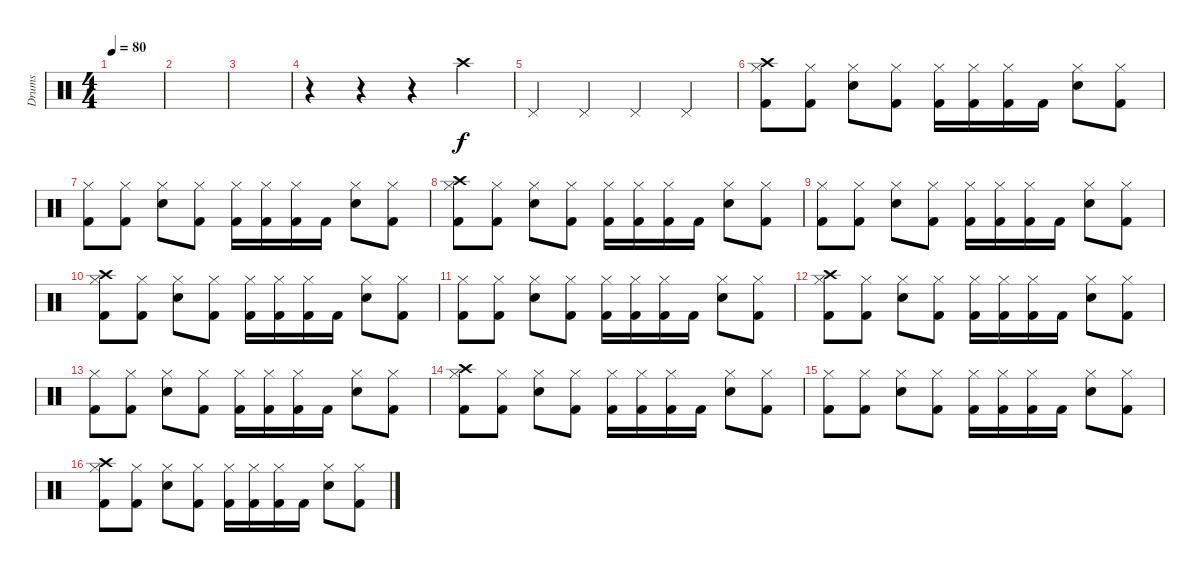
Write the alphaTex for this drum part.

\track ("Drums" "Drums") {instrument percussion}
\staff {score}
\articulation defaults
\ts (4 4)
\tempo 80
\clef neutral
\ks c
|
|
|
r.4 r.4 r.4 "Crash high (hit)".4 |
"Pedal Hi-Hat (hit)".4 "Pedal Hi-Hat (hit)".4 "Pedal Hi-Hat (hit)".4 "Pedal Hi-Hat (hit)".4 |
("Crash high (hit)" "Hi-Hat (closed)" "Kick (hit) 2").8 ("Hi-Hat (closed)" "Kick (hit) 2").8 ("Hi-Hat (closed)" "Snare (hit) 2").8 ("Hi-Hat (closed)" "Kick (hit) 2").8 ("Hi-Hat (closed)" "Kick (hit) 2").16 ("Hi-Hat (closed)" "Kick (hit) 2").16 ("Hi-Hat (closed)" "Kick (hit) 2").16 "Kick (hit) 2".16 ("Hi-Hat (closed)" "Snare (hit) 2").8 ("Hi-Hat (closed)" "Kick (hit) 2").8 |
("Hi-Hat (closed)" "Kick (hit) 2").8 ("Hi-Hat (closed)" "Kick (hit) 2").8 ("Hi-Hat (closed)" "Snare (hit) 2").8 ("Hi-Hat (closed)" "Kick (hit) 2").8 ("Hi-Hat (closed)" "Kick (hit) 2").16 ("Hi-Hat (closed)" "Kick (hit) 2").16 ("Hi-Hat (closed)" "Kick (hit) 2").16 "Kick (hit) 2".16 ("Hi-Hat (closed)" "Snare (hit) 2").8 ("Hi-Hat (closed)" "Kick (hit) 2").8 |
("Crash high (hit)" "Hi-Hat (closed)" "Kick (hit) 2").8 ("Hi-Hat (closed)" "Kick (hit) 2").8 ("Hi-Hat (closed)" "Snare (hit) 2").8 ("Hi-Hat (closed)" "Kick (hit) 2").8 ("Hi-Hat (closed)" "Kick (hit) 2").16 ("Hi-Hat (closed)" "Kick (hit) 2").16 ("Hi-Hat (closed)" "Kick (hit) 2").16 "Kick (hit) 2".16 ("Hi-Hat (closed)" "Snare (hit) 2").8 ("Hi-Hat (closed)" "Kick (hit) 2").8 |
("Hi-Hat (closed)" "Kick (hit) 2").8 ("Hi-Hat (closed)" "Kick (hit) 2").8 ("Hi-Hat (closed)" "Snare (hit) 2").8 ("Hi-Hat (closed)" "Kick (hit) 2").8 ("Hi-Hat (closed)" "Kick (hit) 2").16 ("Hi-Hat (closed)" "Kick (hit) 2").16 ("Hi-Hat (closed)" "Kick (hit) 2").16 "Kick (hit) 2".16 ("Hi-Hat (closed)" "Snare (hit) 2").8 ("Hi-Hat (closed)" "Kick (hit) 2").8 |
("Crash high (hit)" "Hi-Hat (closed)" "Kick (hit) 2").8 ("Hi-Hat (closed)" "Kick (hit) 2").8 ("Hi-Hat (closed)" "Snare (hit) 2").8 ("Hi-Hat (closed)" "Kick (hit) 2").8 ("Hi-Hat (closed)" "Kick (hit) 2").16 ("Hi-Hat (closed)" "Kick (hit) 2").16 ("Hi-Hat (closed)" "Kick (hit) 2").16 "Kick (hit) 2".16 ("Hi-Hat (closed)" "Snare (hit) 2").8 ("Hi-Hat (closed)" "Kick (hit) 2").8 |
("Hi-Hat (closed)" "Kick (hit) 2").8 ("Hi-Hat (closed)" "Kick (hit) 2").8 ("Hi-Hat (closed)" "Snare (hit) 2").8 ("Hi-Hat (closed)" "Kick (hit) 2").8 ("Hi-Hat (closed)" "Kick (hit) 2").16 ("Hi-Hat (closed)" "Kick (hit) 2").16 ("Hi-Hat (closed)" "Kick (hit) 2").16 "Kick (hit) 2".16 ("Hi-Hat (closed)" "Snare (hit) 2").8 ("Hi-Hat (closed)" "Kick (hit) 2").8 |
("Crash high (hit)" "Hi-Hat (closed)" "Kick (hit) 2").8 ("Hi-Hat (closed)" "Kick (hit) 2").8 ("Hi-Hat (closed)" "Snare (hit) 2").8 ("Hi-Hat (closed)" "Kick (hit) 2").8 ("Hi-Hat (closed)" "Kick (hit) 2").16 ("Hi-Hat (closed)" "Kick (hit) 2").16 ("Hi-Hat (closed)" "Kick (hit) 2").16 "Kick (hit) 2".16 ("Hi-Hat (closed)" "Snare (hit) 2").8 ("Hi-Hat (closed)" "Kick (hit) 2").8 |
("Hi-Hat (closed)" "Kick (hit) 2").8 ("Hi-Hat (closed)" "Kick (hit) 2").8 ("Hi-Hat (closed)" "Snare (hit) 2").8 ("Hi-Hat (closed)" "Kick (hit) 2").8 ("Hi-Hat (closed)" "Kick (hit) 2").16 ("Hi-Hat (closed)" "Kick (hit) 2").16 ("Hi-Hat (closed)" "Kick (hit) 2").16 "Kick (hit) 2".16 ("Hi-Hat (closed)" "Snare (hit) 2").8 ("Hi-Hat (closed)" "Kick (hit) 2").8 |
("Crash high (hit)" "Hi-Hat (closed)" "Kick (hit) 2").8 ("Hi-Hat (closed)" "Kick (hit) 2").8 ("Hi-Hat (closed)" "Snare (hit) 2").8 ("Hi-Hat (closed)" "Kick (hit) 2").8 ("Hi-Hat (closed)" "Kick (hit) 2").16 ("Hi-Hat (closed)" "Kick (hit) 2").16 ("Hi-Hat (closed)" "Kick (hit) 2").16 "Kick (hit) 2".16 ("Hi-Hat (closed)" "Snare (hit) 2").8 ("Hi-Hat (closed)" "Kick (hit) 2").8 |
("Hi-Hat (closed)" "Kick (hit) 2").8 ("Hi-Hat (closed)" "Kick (hit) 2").8 ("Hi-Hat (closed)" "Snare (hit) 2").8 ("Hi-Hat (closed)" "Kick (hit) 2").8 ("Hi-Hat (closed)" "Kick (hit) 2").16 ("Hi-Hat (closed)" "Kick (hit) 2").16 ("Hi-Hat (closed)" "Kick (hit) 2").16 "Kick (hit) 2".16 ("Hi-Hat (closed)" "Snare (hit) 2").8 ("Hi-Hat (closed)" "Kick (hit) 2").8 |
("Crash high (hit)" "Hi-Hat (closed)" "Kick (hit) 2").8 ("Hi-Hat (closed)" "Kick (hit) 2").8 ("Hi-Hat (closed)" "Snare (hit) 2").8 ("Hi-Hat (closed)" "Kick (hit) 2").8 ("Hi-Hat (closed)" "Kick (hit) 2").16 ("Hi-Hat (closed)" "Kick (hit) 2").16 ("Hi-Hat (closed)" "Kick (hit) 2").16 "Kick (hit) 2".16 ("Hi-Hat (closed)" "Snare (hit) 2").8 ("Hi-Hat (closed)" "Kick (hit) 2").8
